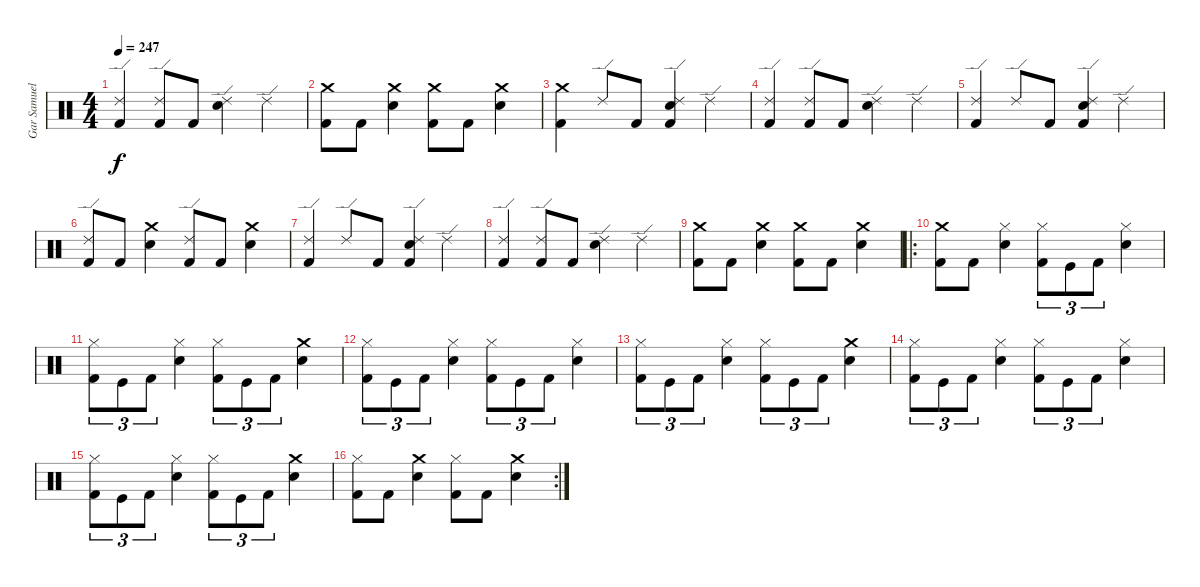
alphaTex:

\track ("Gar Samuelson (Drums)" "Gar Samuel") {instrument percussion}
\staff {score}
\articulation defaults
\ts (4 4)
\tempo 247
\clef neutral
\ks c
("Kick (hit) 2" "Ride (edge) 2").4{dy f} ("Ride (edge) 2" "Kick (hit) 2").8 "Kick (hit) 2".8 ("Snare (hit) 2" "Ride (edge) 2").4 "Ride (edge) 2".4 |
("Kick (hit) 2" "Crash medium (hit)").8 "Kick (hit) 2".8 ("Snare (hit) 2" "Crash medium (hit)").4 ("Kick (hit) 2" "Crash medium (hit)").8 "Kick (hit) 2".8 ("Snare (hit) 2" "Crash medium (hit)").4 |
("Kick (hit) 2" "Crash medium (hit)").4 "Ride (edge) 2".8 "Kick (hit) 2".8 ("Kick (hit) 2" "Snare (hit) 2" "Ride (edge) 2").4 "Ride (edge) 2".4 |
("Kick (hit) 2" "Ride (edge) 2").4 ("Ride (edge) 2" "Kick (hit) 2").8 "Kick (hit) 2".8 ("Snare (hit) 2" "Ride (edge) 2").4 "Ride (edge) 2".4 |
("Kick (hit) 2" "Ride (edge) 2").4 "Ride (edge) 2".8 "Kick (hit) 2".8 ("Ride (edge) 2" "Snare (hit) 2" "Kick (hit) 2").4 "Ride (edge) 2".4 |
("Ride (edge) 2" "Kick (hit) 2").8 "Kick (hit) 2".8 ("Snare (hit) 2" "Crash medium (hit)").4 ("Ride (edge) 2" "Kick (hit) 2").8 "Kick (hit) 2".8 ("Snare (hit) 2" "Crash medium (hit)").4 |
("Ride (edge) 2" "Kick (hit) 2").4 "Ride (edge) 2".8 "Kick (hit) 2".8 ("Ride (edge) 2" "Snare (hit) 2" "Kick (hit) 2").4 "Ride (edge) 2".4 |
("Kick (hit) 2" "Ride (edge) 2").4 ("Ride (edge) 2" "Kick (hit) 2").8 "Kick (hit) 2".8 ("Snare (hit) 2" "Ride (edge) 2").4 "Ride (edge) 2".4 |
("Kick (hit) 2" "Crash medium (hit)").8 "Kick (hit) 2".8 ("Snare (hit) 2" "Crash medium (hit)").4 ("Kick (hit) 2" "Crash medium (hit)").8 "Kick (hit) 2".8 ("Snare (hit) 2" "Crash medium (hit)").4 |
\ro
("Crash medium (hit)" "Kick (hit) 2").8 "Kick (hit) 2".8 ("Snare (hit) 2" "Hi-Hat (closed)").4 ("Hi-Hat (closed)" "Kick (hit) 2").8{tu (3 2)} "Kick (hit)".8{tu (3 2)} "Kick (hit) 2".8{tu (3 2)} ("Hi-Hat (closed)" "Snare (hit) 2").4 |
("Hi-Hat (closed)" "Kick (hit) 2").8{tu (3 2)} "Kick (hit)".8{tu (3 2)} "Kick (hit) 2".8{tu (3 2)} ("Snare (hit) 2" "Hi-Hat (closed)").4 ("Hi-Hat (closed)" "Kick (hit) 2").8{tu (3 2)} "Kick (hit)".8{tu (3 2)} "Kick (hit) 2".8{tu (3 2)} ("Crash medium (hit)" "Snare (hit) 2").4 |
("Hi-Hat (closed)" "Kick (hit) 2").8{tu (3 2)} "Kick (hit)".8{tu (3 2)} "Kick (hit) 2".8{tu (3 2)} ("Snare (hit) 2" "Hi-Hat (closed)").4 ("Hi-Hat (closed)" "Kick (hit) 2").8{tu (3 2)} "Kick (hit)".8{tu (3 2)} "Kick (hit) 2".8{tu (3 2)} ("Hi-Hat (closed)" "Snare (hit) 2").4 |
("Hi-Hat (closed)" "Kick (hit) 2").8{tu (3 2)} "Kick (hit)".8{tu (3 2)} "Kick (hit) 2".8{tu (3 2)} ("Snare (hit) 2" "Hi-Hat (closed)").4 ("Hi-Hat (closed)" "Kick (hit) 2").8{tu (3 2)} "Kick (hit)".8{tu (3 2)} "Kick (hit) 2".8{tu (3 2)} ("Crash medium (hit)" "Snare (hit) 2").4 |
("Hi-Hat (closed)" "Kick (hit) 2").8{tu (3 2)} "Kick (hit)".8{tu (3 2)} "Kick (hit) 2".8{tu (3 2)} ("Snare (hit) 2" "Hi-Hat (closed)").4 ("Hi-Hat (closed)" "Kick (hit) 2").8{tu (3 2)} "Kick (hit)".8{tu (3 2)} "Kick (hit) 2".8{tu (3 2)} ("Hi-Hat (closed)" "Snare (hit) 2").4 |
("Hi-Hat (closed)" "Kick (hit) 2").8{tu (3 2)} "Kick (hit)".8{tu (3 2)} "Kick (hit) 2".8{tu (3 2)} ("Snare (hit) 2" "Hi-Hat (closed)").4 ("Hi-Hat (closed)" "Kick (hit) 2").8{tu (3 2)} "Kick (hit)".8{tu (3 2)} "Kick (hit) 2".8{tu (3 2)} ("Crash medium (hit)" "Snare (hit) 2").4 |
\rc 2
("Kick (hit) 2" "Hi-Hat (closed)").8 "Kick (hit) 2".8 ("Crash medium (hit)" "Snare (hit) 2").4 ("Kick (hit) 2" "Hi-Hat (closed)").8 "Kick (hit) 2".8 ("Crash medium (hit)" "Snare (hit) 2").4
